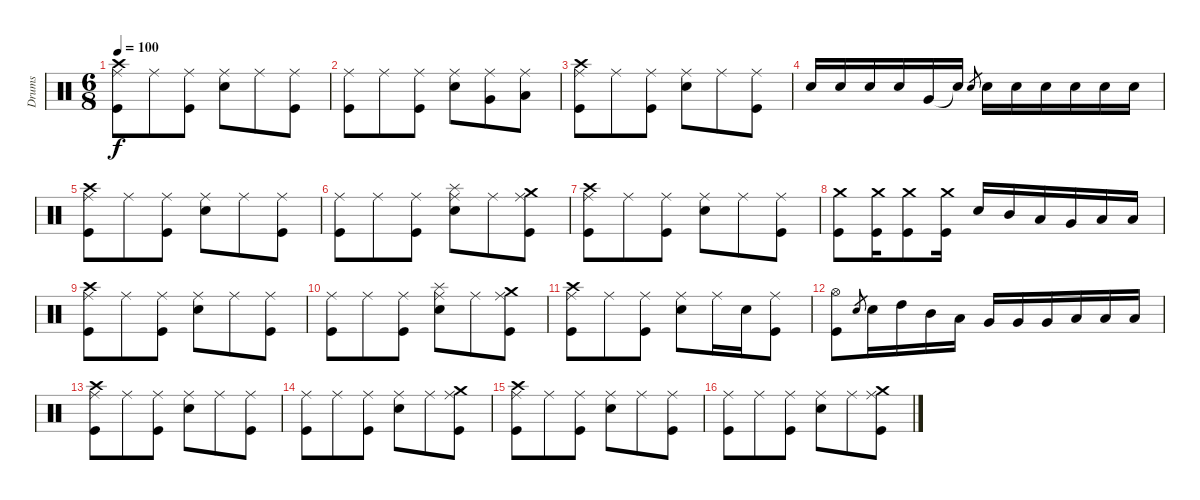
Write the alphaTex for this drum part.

\track ("Drums" "Drums") {instrument percussion}
\staff {score}
\articulation defaults
\ts (6 8)
\tempo 100
\clef neutral
\ks c
("Crash high (hit)" "Ride (middle)" "Kick (hit)").8{dy f} "Ride (middle)".8 ("Ride (middle)" "Kick (hit)").8 ("Ride (middle)" "Electric Snare (hit)").8 "Ride (middle)".8 ("Ride (middle)" "Kick (hit)").8 |
("Ride (middle)" "Kick (hit)").8 "Ride (middle)".8 ("Ride (middle)" "Kick (hit)").8 ("Ride (middle)" "Electric Snare (hit)").8 ("Ride (middle)" "Very Low Tom (hit)").8 ("Ride (middle)" "Low Floor Tom (hit)").8 |
("Crash high (hit)" "Ride (middle)" "Kick (hit)").8 "Ride (middle)".8 ("Ride (middle)" "Kick (hit)").8 ("Ride (middle)" "Electric Snare (hit)").8 "Ride (middle)".8 ("Ride (middle)" "Kick (hit)").8 |
"Electric Snare (hit)".16 "Electric Snare (hit)".16 "Electric Snare (hit)".16 "Electric Snare (hit)".16 "Very Low Tom (hit)".16 "Electric Snare (hit)"{t}.16 "Electric Snare (hit)".8{gr} "Electric Snare (hit)".16 "Electric Snare (hit)".16 "Electric Snare (hit)".16 "Electric Snare (hit)".16 "Electric Snare (hit)".16 "Electric Snare (hit)".16 |
("Crash high (hit)" "Ride (middle)" "Kick (hit)").8 "Ride (middle)".8 ("Ride (middle)" "Kick (hit)").8 ("Ride (middle)" "Electric Snare (hit)").8 "Ride (middle)".8 ("Ride (middle)" "Kick (hit)").8 |
("Ride (middle)" "Kick (hit)").8 "Ride (middle)".8 ("Ride (middle)" "Kick (hit)").8 ("Splash (hit)" "Ride (middle)" "Electric Snare (hit)").8 "Ride (middle)".8 ("Crash medium (hit)" "Ride (middle)" "Kick (hit)").8 |
("Crash high (hit)" "Ride (middle)" "Kick (hit)").8 "Ride (middle)".8 ("Ride (middle)" "Kick (hit)").8 ("Ride (middle)" "Electric Snare (hit)").8 "Ride (middle)".8 ("Ride (middle)" "Kick (hit)").8 |
("Crash medium (hit)" "Kick (hit)").8 ("Crash medium (hit)" "Kick (hit)").16 ("Crash medium (hit)" "Kick (hit)").8 ("Crash medium (hit)" "Kick (hit)").16 "Electric Snare (hit)".16 "Mid Tom (hit)".16 "Low Tom (hit)".16 "Very Low Tom (hit)".16 "Low Floor Tom (hit)".16 "Low Floor Tom (hit)".16 |
("Crash high (hit)" "Ride (middle)" "Kick (hit)").8 "Ride (middle)".8 ("Ride (middle)" "Kick (hit)").8 ("Ride (middle)" "Electric Snare (hit)").8 "Ride (middle)".8 ("Ride (middle)" "Kick (hit)").8 |
("Ride (middle)" "Kick (hit)").8 "Ride (middle)".8 ("Ride (middle)" "Kick (hit)").8 ("Splash (hit)" "Ride (middle)" "Electric Snare (hit)").8 "Ride (middle)".8 ("Crash medium (hit)" "Ride (middle)" "Kick (hit)").8 |
("Crash high (hit)" "Ride (middle)" "Kick (hit)").8 "Ride (middle)".8 ("Ride (middle)" "Kick (hit)").8 ("Ride (middle)" "Electric Snare (hit)").8 "Ride (middle)".16 "Electric Snare (hit)".16 ("Ride (middle)" "Kick (hit)").8 |
("Hi-Hat (open)" "Kick (hit)").8 "Electric Snare (hit)".8{gr} "Electric Snare (hit)".16 "High Tom (hit)".16 "Mid Tom (hit)".16 "Low Tom (hit)".16 "Very Low Tom (hit)".16 "Very Low Tom (hit)".16 "Very Low Tom (hit)".16 "Low Floor Tom (hit)".16 "Low Floor Tom (hit)".16 "Low Floor Tom (hit)".16 |
("Crash high (hit)" "Ride (middle)" "Kick (hit)").8 "Ride (middle)".8 ("Ride (middle)" "Kick (hit)").8 ("Ride (middle)" "Electric Snare (hit)").8 "Ride (middle)".8 ("Ride (middle)" "Kick (hit)").8 |
("Ride (middle)" "Kick (hit)").8 "Ride (middle)".8 ("Ride (middle)" "Kick (hit)").8 ("Ride (middle)" "Electric Snare (hit)").8 "Ride (middle)".8 ("Crash medium (hit)" "Ride (middle)" "Kick (hit)").8 |
("Crash high (hit)" "Ride (middle)" "Kick (hit)").8 "Ride (middle)".8 ("Ride (middle)" "Kick (hit)").8 ("Ride (middle)" "Electric Snare (hit)").8 "Ride (middle)".8 ("Ride (middle)" "Kick (hit)").8 |
("Ride (middle)" "Kick (hit)").8 "Ride (middle)".8 ("Ride (middle)" "Kick (hit)").8 ("Ride (middle)" "Electric Snare (hit)").8 "Ride (middle)".8 ("Crash medium (hit)" "Ride (middle)" "Kick (hit)").8
